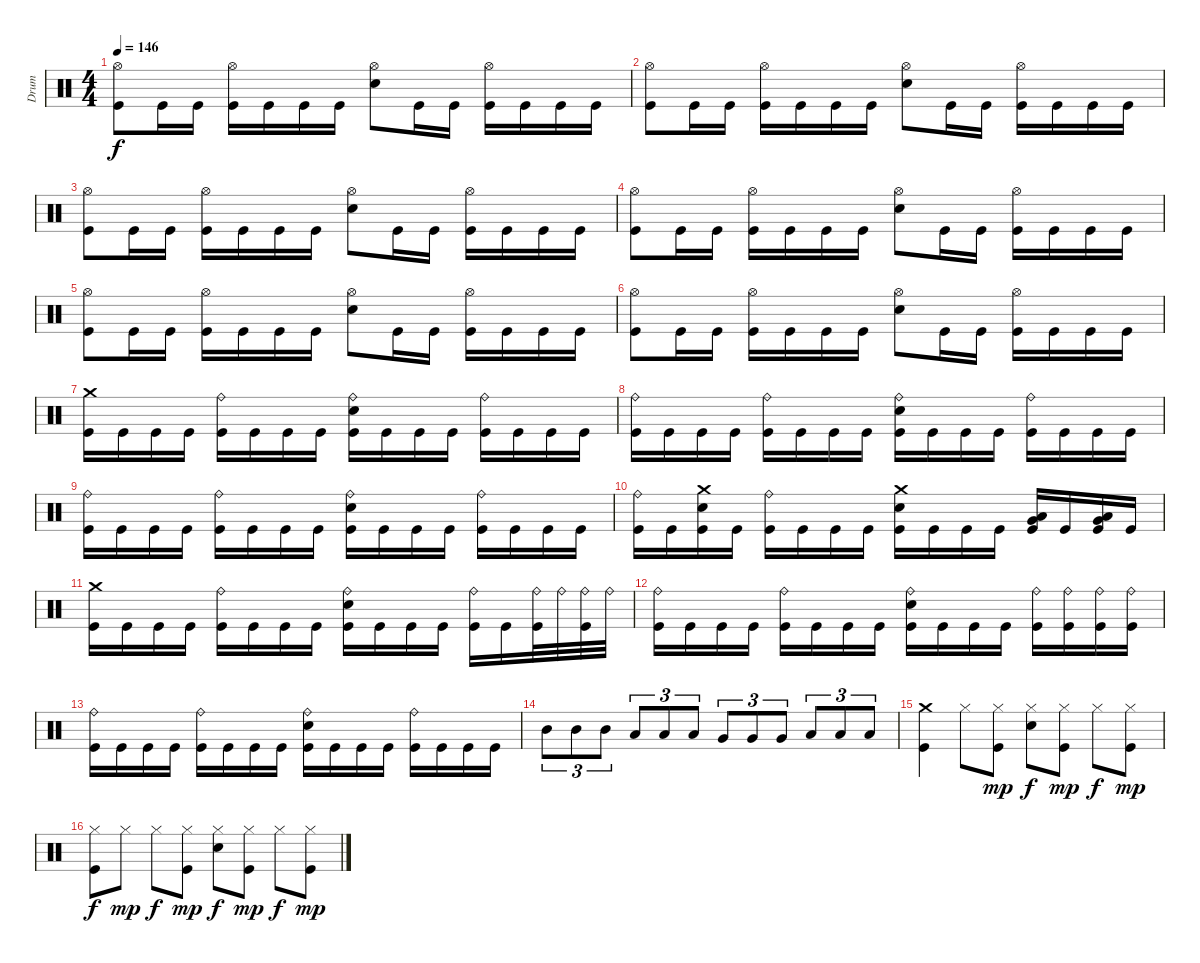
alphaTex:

\track ("Drum" "Drum") {instrument percussion}
\staff {score}
\articulation defaults
\ts (4 4)
\tempo 146
\clef neutral
\ks c
("Kick (hit)" "Hi-Hat (open)").8{dy f} "Kick (hit)".16 "Kick (hit)".16 ("Kick (hit)" "Hi-Hat (open)").16 "Kick (hit)".16 "Kick (hit)".16 "Kick (hit)".16 ("Electric Snare (hit)" "Hi-Hat (open)").8 "Kick (hit)".16 "Kick (hit)".16 ("Kick (hit)" "Hi-Hat (open)").16 "Kick (hit)".16 "Kick (hit)".16 "Kick (hit)".16 |
("Kick (hit)" "Hi-Hat (open)").8 "Kick (hit)".16 "Kick (hit)".16 ("Kick (hit)" "Hi-Hat (open)").16 "Kick (hit)".16 "Kick (hit)".16 "Kick (hit)".16 ("Electric Snare (hit)" "Hi-Hat (open)").8 "Kick (hit)".16 "Kick (hit)".16 ("Kick (hit)" "Hi-Hat (open)").16 "Kick (hit)".16 "Kick (hit)".16 "Kick (hit)".16 |
("Kick (hit)" "Hi-Hat (open)").8 "Kick (hit)".16 "Kick (hit)".16 ("Kick (hit)" "Hi-Hat (open)").16 "Kick (hit)".16 "Kick (hit)".16 "Kick (hit)".16 ("Electric Snare (hit)" "Hi-Hat (open)").8 "Kick (hit)".16 "Kick (hit)".16 ("Kick (hit)" "Hi-Hat (open)").16 "Kick (hit)".16 "Kick (hit)".16 "Kick (hit)".16 |
("Kick (hit)" "Hi-Hat (open)").8 "Kick (hit)".16 "Kick (hit)".16 ("Kick (hit)" "Hi-Hat (open)").16 "Kick (hit)".16 "Kick (hit)".16 "Kick (hit)".16 ("Electric Snare (hit)" "Hi-Hat (open)").8 "Kick (hit)".16 "Kick (hit)".16 ("Kick (hit)" "Hi-Hat (open)").16 "Kick (hit)".16 "Kick (hit)".16 "Kick (hit)".16 |
("Kick (hit)" "Hi-Hat (open)").8 "Kick (hit)".16 "Kick (hit)".16 ("Kick (hit)" "Hi-Hat (open)").16 "Kick (hit)".16 "Kick (hit)".16 "Kick (hit)".16 ("Electric Snare (hit)" "Hi-Hat (open)").8 "Kick (hit)".16 "Kick (hit)".16 ("Kick (hit)" "Hi-Hat (open)").16 "Kick (hit)".16 "Kick (hit)".16 "Kick (hit)".16 |
("Kick (hit)" "Hi-Hat (open)").8 "Kick (hit)".16 "Kick (hit)".16 ("Kick (hit)" "Hi-Hat (open)").16 "Kick (hit)".16 "Kick (hit)".16 "Kick (hit)".16 ("Electric Snare (hit)" "Hi-Hat (open)").8 "Kick (hit)".16 "Kick (hit)".16 ("Kick (hit)" "Hi-Hat (open)").16 "Kick (hit)".16 "Kick (hit)".16 "Kick (hit)".16 |
("Kick (hit)" "Crash medium (hit)").16 "Kick (hit)".16 "Kick (hit)".16 "Kick (hit)".16 ("Kick (hit)" "Ride (bell)").16 "Kick (hit)".16 "Kick (hit)".16 "Kick (hit)".16 ("Kick (hit)" "Electric Snare (hit)" "Ride (bell)").16 "Kick (hit)".16 "Kick (hit)".16 "Kick (hit)".16 ("Kick (hit)" "Ride (bell)").16 "Kick (hit)".16 "Kick (hit)".16 "Kick (hit)".16 |
("Kick (hit)" "Ride (bell)").16 "Kick (hit)".16 "Kick (hit)".16 "Kick (hit)".16 ("Kick (hit)" "Ride (bell)").16 "Kick (hit)".16 "Kick (hit)".16 "Kick (hit)".16 ("Kick (hit)" "Electric Snare (hit)" "Ride (bell)").16 "Kick (hit)".16 "Kick (hit)".16 "Kick (hit)".16 ("Kick (hit)" "Ride (bell)").16 "Kick (hit)".16 "Kick (hit)".16 "Kick (hit)".16 |
("Kick (hit)" "Ride (bell)").16 "Kick (hit)".16 "Kick (hit)".16 "Kick (hit)".16 ("Kick (hit)" "Ride (bell)").16 "Kick (hit)".16 "Kick (hit)".16 "Kick (hit)".16 ("Kick (hit)" "Electric Snare (hit)" "Ride (bell)").16 "Kick (hit)".16 "Kick (hit)".16 "Kick (hit)".16 ("Kick (hit)" "Ride (bell)").16 "Kick (hit)".16 "Kick (hit)".16 "Kick (hit)".16 |
("Kick (hit)" "Ride (bell)").16 "Kick (hit)".16 ("Kick (hit)" "Electric Snare (hit)" "Crash medium (hit)").16 "Kick (hit)".16 ("Kick (hit)" "Ride (bell)").16 "Kick (hit)".16 "Kick (hit)".16 "Kick (hit)".16 ("Kick (hit)" "Electric Snare (hit)" "Crash medium (hit)").16 "Kick (hit)".16 "Kick (hit)".16 "Kick (hit)".16 ("Kick (hit)" "Low Tom (hit)" "Very Low Tom (hit)").16 "Kick (hit)".16 ("Kick (hit)" "Low Tom (hit)" "Very Low Tom (hit)").16 "Kick (hit)".16 |
("Kick (hit)" "Crash medium (hit)").16 "Kick (hit)".16 "Kick (hit)".16 "Kick (hit)".16 ("Kick (hit)" "Ride (bell)").16 "Kick (hit)".16 "Kick (hit)".16 "Kick (hit)".16 ("Kick (hit)" "Electric Snare (hit)" "Ride (bell)").16 "Kick (hit)".16 "Kick (hit)".16 "Kick (hit)".16 ("Kick (hit)" "Ride (bell)").16 "Kick (hit)".16 ("Kick (hit)" "Ride (bell)").32 "Ride (bell)".32 ("Kick (hit)" "Ride (bell)").32 "Ride (bell)".32 |
("Kick (hit)" "Ride (bell)").16 "Kick (hit)".16 "Kick (hit)".16 "Kick (hit)".16 ("Kick (hit)" "Ride (bell)").16 "Kick (hit)".16 "Kick (hit)".16 "Kick (hit)".16 ("Kick (hit)" "Electric Snare (hit)" "Ride (bell)").16 "Kick (hit)".16 "Kick (hit)".16 "Kick (hit)".16 ("Kick (hit)" "Ride (bell)").16 ("Kick (hit)" "Ride (bell)").16 ("Kick (hit)" "Ride (bell)").16 ("Kick (hit)" "Ride (bell)").16 |
("Kick (hit)" "Ride (bell)").16 "Kick (hit)".16 "Kick (hit)".16 "Kick (hit)".16 ("Kick (hit)" "Ride (bell)").16 "Kick (hit)".16 "Kick (hit)".16 "Kick (hit)".16 ("Kick (hit)" "Electric Snare (hit)" "Ride (bell)").16 "Kick (hit)".16 "Kick (hit)".16 "Kick (hit)".16 ("Kick (hit)" "Ride (bell)").16 "Kick (hit)".16 "Kick (hit)".16 "Kick (hit)".16 |
"Mid Tom (hit)".8{tu (3 2)} "Mid Tom (hit)".8{tu (3 2)} "Mid Tom (hit)".8{tu (3 2)} "Low Tom (hit)".8{tu (3 2)} "Low Tom (hit)".8{tu (3 2)} "Low Tom (hit)".8{tu (3 2)} "Very Low Tom (hit)".8{tu (3 2)} "Very Low Tom (hit)".8{tu (3 2)} "Very Low Tom (hit)".8{tu (3 2)} "Low Floor Tom (hit)".8{tu (3 2)} "Low Floor Tom (hit)".8{tu (3 2)} "Low Floor Tom (hit)".8{tu (3 2)} |
("Kick (hit)" "Crash medium (hit)").4 "Hi-Hat (closed)".8 ("Kick (hit)" "Hi-Hat (closed)").8{dy mp} ("Electric Snare (hit)" "Hi-Hat (closed)").8{dy f} ("Kick (hit)" "Hi-Hat (closed)").8{dy mp} "Hi-Hat (closed)".8{dy f} ("Kick (hit)" "Hi-Hat (closed)").8{dy mp} |
("Kick (hit)" "Hi-Hat (closed)").8{dy f} "Hi-Hat (closed)".8{dy mp} "Hi-Hat (closed)".8{dy f} ("Kick (hit)" "Hi-Hat (closed)").8{dy mp} ("Electric Snare (hit)" "Hi-Hat (closed)").8{dy f} ("Kick (hit)" "Hi-Hat (closed)").8{dy mp} "Hi-Hat (closed)".8{dy f} ("Kick (hit)" "Hi-Hat (closed)").8{dy mp}
